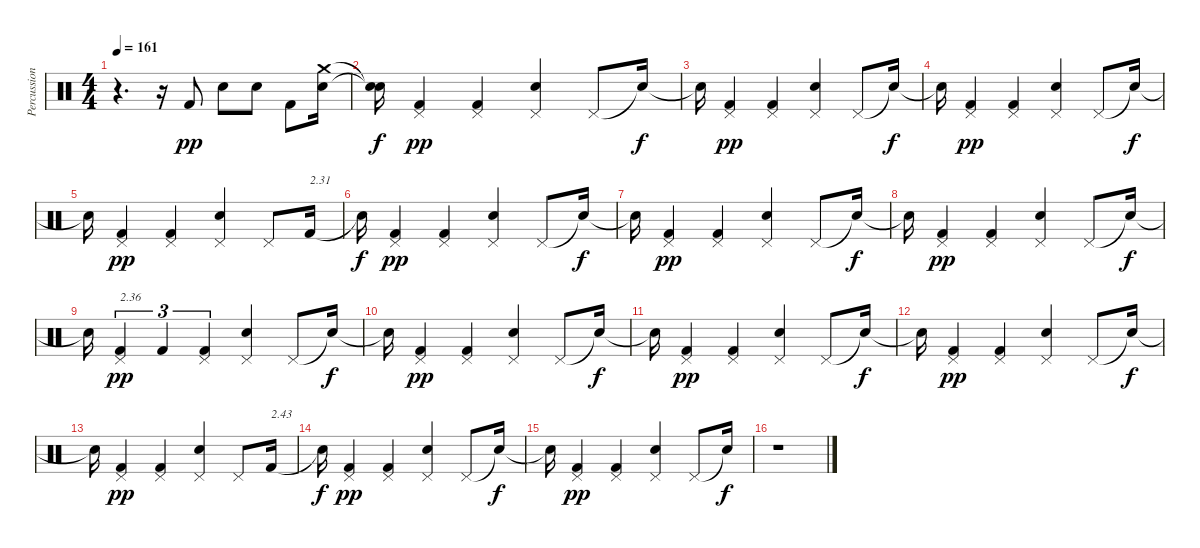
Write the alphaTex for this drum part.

\track ("Percussions" "Percussion") {instrument percussion}
\staff {score}
\articulation defaults
\ts (4 4)
\tempo 161
\clef neutral
\ks c
r.4{d dy f} r.16 "Kick (hit) 2".8{dy pp} "Electric Snare (hit)".8 "Electric Snare (hit)".8 "Kick (hit) 2".8 ("Electric Snare (hit)" "Crash medium (hit)").16 |
("Snare (hit)"{t} "Snare (hit)"{t}).16{dy f} ("Kick (hit) 2" "Pedal Hi-Hat (hit)").4{dy pp} ("Kick (hit) 2" "Pedal Hi-Hat (hit)").4 ("Electric Snare (hit)" "Pedal Hi-Hat (hit)").4 "Pedal Hi-Hat (hit)".8 "Snare (hit)"{t}.16{dy f} |
"Snare (hit)"{t}.16 ("Kick (hit) 2" "Pedal Hi-Hat (hit)").4{dy pp} ("Kick (hit) 2" "Pedal Hi-Hat (hit)").4 ("Electric Snare (hit)" "Pedal Hi-Hat (hit)").4 "Pedal Hi-Hat (hit)".8 "Snare (hit)"{t}.16{dy f} |
"Snare (hit)"{t}.16 ("Kick (hit) 2" "Pedal Hi-Hat (hit)").4{dy pp} ("Kick (hit) 2" "Pedal Hi-Hat (hit)").4 ("Electric Snare (hit)" "Pedal Hi-Hat (hit)").4 "Pedal Hi-Hat (hit)".8 "Snare (hit)"{t}.16{dy f} |
"Snare (hit)"{t}.16 ("Kick (hit) 2" "Pedal Hi-Hat (hit)").4{dy pp} ("Kick (hit) 2" "Pedal Hi-Hat (hit)").4 ("Electric Snare (hit)" "Pedal Hi-Hat (hit)").4 "Pedal Hi-Hat (hit)".8 "Kick (hit) 2".16{txt "2.31"} |
"Snare (hit)"{t}.16{dy f} ("Kick (hit) 2" "Pedal Hi-Hat (hit)").4{dy pp} ("Kick (hit) 2" "Pedal Hi-Hat (hit)").4 ("Electric Snare (hit)" "Pedal Hi-Hat (hit)").4 "Pedal Hi-Hat (hit)".8 "Snare (hit)"{t}.16{dy f} |
"Snare (hit)"{t}.16 ("Kick (hit) 2" "Pedal Hi-Hat (hit)").4{dy pp} ("Kick (hit) 2" "Pedal Hi-Hat (hit)").4 ("Electric Snare (hit)" "Pedal Hi-Hat (hit)").4 "Pedal Hi-Hat (hit)".8 "Snare (hit)"{t}.16{dy f} |
"Snare (hit)"{t}.16 ("Kick (hit) 2" "Pedal Hi-Hat (hit)").4{dy pp} ("Kick (hit) 2" "Pedal Hi-Hat (hit)").4 ("Electric Snare (hit)" "Pedal Hi-Hat (hit)").4 "Pedal Hi-Hat (hit)".8 "Snare (hit)"{t}.16{dy f} |
"Snare (hit)"{t}.16 ("Kick (hit) 2" "Pedal Hi-Hat (hit)").4{tu (3 2) txt "2.36" dy pp} "Kick (hit) 2".4{tu (3 2)} ("Kick (hit) 2" "Pedal Hi-Hat (hit)").4{tu (3 2)} ("Electric Snare (hit)" "Pedal Hi-Hat (hit)").4 "Pedal Hi-Hat (hit)".8 "Snare (hit)"{t}.16{dy f} |
"Snare (hit)"{t}.16 ("Kick (hit) 2" "Pedal Hi-Hat (hit)").4{dy pp} ("Kick (hit) 2" "Pedal Hi-Hat (hit)").4 ("Electric Snare (hit)" "Pedal Hi-Hat (hit)").4 "Pedal Hi-Hat (hit)".8 "Snare (hit)"{t}.16{dy f} |
"Snare (hit)"{t}.16 ("Kick (hit) 2" "Pedal Hi-Hat (hit)").4{dy pp} ("Kick (hit) 2" "Pedal Hi-Hat (hit)").4 ("Electric Snare (hit)" "Pedal Hi-Hat (hit)").4 "Pedal Hi-Hat (hit)".8 "Snare (hit)"{t}.16{dy f} |
"Snare (hit)"{t}.16 ("Kick (hit) 2" "Pedal Hi-Hat (hit)").4{dy pp} ("Kick (hit) 2" "Pedal Hi-Hat (hit)").4 ("Electric Snare (hit)" "Pedal Hi-Hat (hit)").4 "Pedal Hi-Hat (hit)".8 "Snare (hit)"{t}.16{dy f} |
"Snare (hit)"{t}.16 ("Kick (hit) 2" "Pedal Hi-Hat (hit)").4{dy pp} ("Kick (hit) 2" "Pedal Hi-Hat (hit)").4 ("Electric Snare (hit)" "Pedal Hi-Hat (hit)").4 "Pedal Hi-Hat (hit)".8 "Kick (hit) 2".16{txt "2.43"} |
"Snare (hit)"{t}.16{dy f} ("Kick (hit) 2" "Pedal Hi-Hat (hit)").4{dy pp} ("Kick (hit) 2" "Pedal Hi-Hat (hit)").4 ("Electric Snare (hit)" "Pedal Hi-Hat (hit)").4 "Pedal Hi-Hat (hit)".8 "Snare (hit)"{t}.16{dy f} |
"Snare (hit)"{t}.16 ("Kick (hit) 2" "Pedal Hi-Hat (hit)").4{dy pp} ("Kick (hit) 2" "Pedal Hi-Hat (hit)").4 ("Electric Snare (hit)" "Pedal Hi-Hat (hit)").4 "Pedal Hi-Hat (hit)".8 "Snare (hit)"{t}.16{dy f} |
r.1
